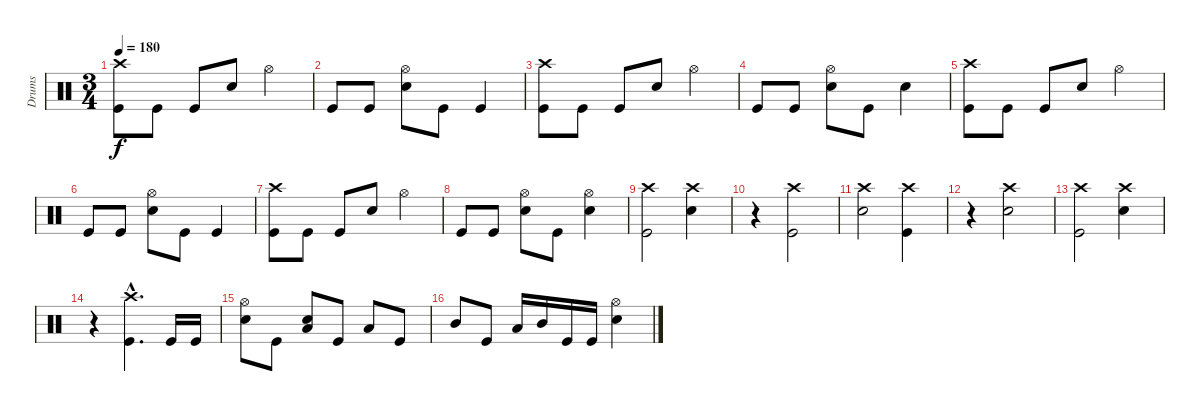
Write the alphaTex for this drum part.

\track ("Drums" "Drums") {instrument percussion}
\staff {score}
\articulation defaults
\ts (3 4)
\tempo 180
\clef neutral
\ks c
("Crash high (hit)" "Kick (hit)").8{dy f} "Kick (hit)".8 "Kick (hit)".8 "Electric Snare (hit)".8 "Hi-Hat (open)".4 |
"Kick (hit)".8 "Kick (hit)".8 ("Hi-Hat (open)" "Electric Snare (hit)").8 "Kick (hit)".8 "Kick (hit)".4 |
("Crash high (hit)" "Kick (hit)").8 "Kick (hit)".8 "Kick (hit)".8 "Electric Snare (hit)".8 "Hi-Hat (open)".4 |
"Kick (hit)".8 "Kick (hit)".8 ("Hi-Hat (open)" "Electric Snare (hit)").8 "Kick (hit)".8 "Electric Snare (hit)".4 |
("Crash high (hit)" "Kick (hit)").8 "Kick (hit)".8 "Kick (hit)".8 "Electric Snare (hit)".8 "Hi-Hat (open)".4 |
"Kick (hit)".8 "Kick (hit)".8 ("Hi-Hat (open)" "Electric Snare (hit)").8 "Kick (hit)".8 "Kick (hit)".4 |
("Crash high (hit)" "Kick (hit)").8 "Kick (hit)".8 "Kick (hit)".8 "Electric Snare (hit)".8 "Hi-Hat (open)".4 |
"Kick (hit)".8 "Kick (hit)".8 ("Hi-Hat (open)" "Electric Snare (hit)").8 "Kick (hit)".8 ("Hi-Hat (open)" "Electric Snare (hit)").4 |
("Crash high (hit)" "Kick (hit)").2 ("Crash high (hit)" "Electric Snare (hit)").4 |
r.4 ("Crash high (hit)" "Kick (hit)").2 |
("Crash high (hit)" "Electric Snare (hit)").2 ("Crash high (hit)" "Kick (hit)").4 |
r.4 ("Crash high (hit)" "Electric Snare (hit)").2 |
("Crash high (hit)" "Kick (hit)").2 ("Crash high (hit)" "Electric Snare (hit)").4 |
r.4 ("Crash high (hit)"{hac} "Kick (hit)"{hac}).4{d} "Kick (hit)".16 "Kick (hit)".16 |
("Hi-Hat (open)" "Electric Snare (hit)").8 "Kick (hit)".8 ("Electric Snare (hit)" "Low Tom (hit)").8 "Kick (hit)".8 "Low Tom (hit)".8 "Kick (hit)".8 |
"Mid Tom (hit)".8 "Kick (hit)".8 "Low Tom (hit)".16 "Mid Tom (hit)".16 "Kick (hit)".16 "Kick (hit)".16 ("Hi-Hat (open)" "Electric Snare (hit)").4
